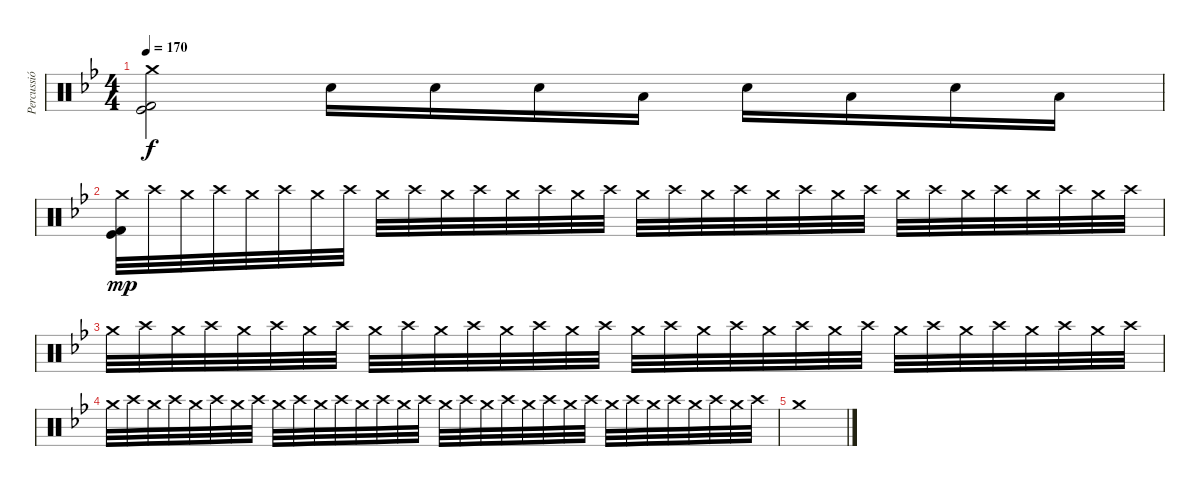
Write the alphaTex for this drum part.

\track ("Percussió" "Percussió") {instrument percussion}
\staff {score}
\articulation defaults
\ts (4 4)
\tempo 170
\clef neutral
\ks gminor
("Crash medium (hit)" "Kick (hit)" "Kick (hit) 2").2{dy f} "Electric Snare (hit)".16 "Electric Snare (hit)".16 "Electric Snare (hit)".16 "Low Tom (hit)".16 "Electric Snare (hit)".16 "Low Tom (hit)".16 "Electric Snare (hit)".16 "Low Floor Tom (hit)".16 |
("Crash medium (hit)" "Kick (hit)" "Kick (hit) 2").32{dy mp volume 8} "Crash high (hit)".32 "Crash medium (hit)".32 "Crash high (hit)".32 "Crash medium (hit)".32 "Crash high (hit)".32 "Crash medium (hit)".32 "Crash high (hit)".32 "Crash medium (hit)".32 "Crash high (hit)".32 "Crash medium (hit)".32 "Crash high (hit)".32 "Crash medium (hit)".32 "Crash high (hit)".32 "Crash medium (hit)".32 "Crash high (hit)".32 "Crash medium (hit)".32 "Crash high (hit)".32 "Crash medium (hit)".32 "Crash high (hit)".32 "Crash medium (hit)".32 "Crash high (hit)".32 "Crash medium (hit)".32 "Crash high (hit)".32 "Crash medium (hit)".32 "Crash high (hit)".32 "Crash medium (hit)".32 "Crash high (hit)".32 "Crash medium (hit)".32 "Crash high (hit)".32 "Crash medium (hit)".32 "Crash high (hit)".32 |
"Crash medium (hit)".32 "Crash high (hit)".32 "Crash medium (hit)".32 "Crash high (hit)".32 "Crash medium (hit)".32 "Crash high (hit)".32 "Crash medium (hit)".32 "Crash high (hit)".32 "Crash medium (hit)".32 "Crash high (hit)".32 "Crash medium (hit)".32 "Crash high (hit)".32 "Crash medium (hit)".32 "Crash high (hit)".32 "Crash medium (hit)".32 "Crash high (hit)".32 "Crash medium (hit)".32 "Crash high (hit)".32 "Crash medium (hit)".32 "Crash high (hit)".32 "Crash medium (hit)".32 "Crash high (hit)".32 "Crash medium (hit)".32 "Crash high (hit)".32 "Crash medium (hit)".32 "Crash high (hit)".32 "Crash medium (hit)".32 "Crash high (hit)".32 "Crash medium (hit)".32 "Crash high (hit)".32 "Crash medium (hit)".32 "Crash high (hit)".32 |
"Crash medium (hit)".32 "Crash high (hit)".32 "Crash medium (hit)".32 "Crash high (hit)".32 "Crash medium (hit)".32 "Crash high (hit)".32 "Crash medium (hit)".32 "Crash high (hit)".32 "Crash medium (hit)".32 "Crash high (hit)".32 "Crash medium (hit)".32 "Crash high (hit)".32 "Crash medium (hit)".32 "Crash high (hit)".32 "Crash medium (hit)".32 "Crash high (hit)".32 "Crash medium (hit)".32 "Crash high (hit)".32 "Crash medium (hit)".32 "Crash high (hit)".32 "Crash medium (hit)".32 "Crash high (hit)".32 "Crash medium (hit)".32 "Crash high (hit)".32 "Crash medium (hit)".32 "Crash high (hit)".32 "Crash medium (hit)".32 "Crash high (hit)".32 "Crash medium (hit)".32 "Crash high (hit)".32 "Crash medium (hit)".32 "Crash high (hit)".32 |
"Crash medium (hit)".1
